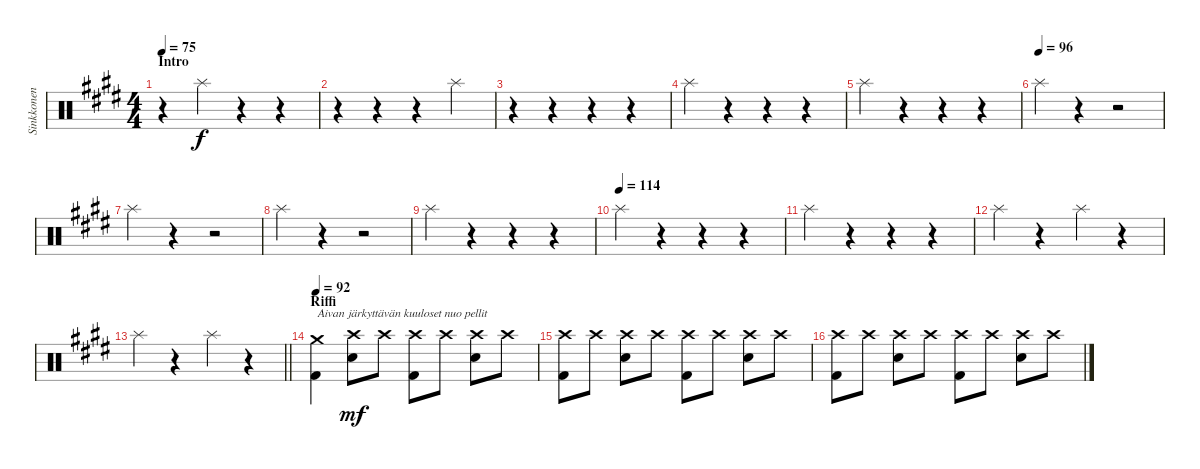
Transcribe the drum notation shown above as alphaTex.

\track ("Sinkkonen" "Sinkkonen") {instrument percussion}
\staff {score}
\articulation defaults
\ts (4 4)
\section ("" "Intro")
\tempo 75
\tempo 87
\tempo 75
\clef neutral
\ks c#minor
r.4{dy f} "Splash (hit)".4 r.4 r.4 |
r.4 r.4 r.4 "Splash (hit)".4 |
r.4 r.4 r.4 r.4 |
"Splash (hit)".4 r.4 r.4 r.4 |
"Splash (hit)".4 r.4 r.4 r.4 |
\tempo (96)
"Splash (hit)".4 r.4 r.2 |
"Splash (hit)".4 r.4 r.2 |
"Splash (hit)".4 r.4 r.2 |
"Splash (hit)".4 r.4 r.4 r.4 |
\tempo (114)
"Splash (hit)".4 r.4 r.4 r.4 |
"Splash (hit)".4 r.4 r.4 r.4 |
"Splash (hit)".4 r.4 "Splash (hit)".4 r.4 |
\barLineRight lightlight "Splash (hit)".4
r.4 "Splash (hit)".4 r.4 |
\section ("" "Riffi")
\tempo 92
("Kick (hit) 2" "Crash medium (hit)").4{txt "Aivan järkyttävän kuuloset nuo pellit"} ("Crash high (hit)" "Snare (hit) 2").8{dy mf} "Crash high (hit)".8 ("Kick (hit) 2" "Crash high (hit)").8 "Crash high (hit)".8 ("Crash high (hit)" "Snare (hit) 2").8 "Crash high (hit)".8 |
("Kick (hit) 2" "Crash high (hit)").8 "Crash high (hit)".8 ("Crash high (hit)" "Snare (hit) 2").8 "Crash high (hit)".8 ("Kick (hit) 2" "Crash high (hit)").8 "Crash high (hit)".8 ("Crash high (hit)" "Snare (hit) 2").8 "Crash high (hit)".8 |
("Kick (hit) 2" "Crash high (hit)").8 "Crash high (hit)".8 ("Crash high (hit)" "Snare (hit) 2").8 "Crash high (hit)".8 ("Kick (hit) 2" "Crash high (hit)").8 "Crash high (hit)".8 ("Crash high (hit)" "Snare (hit) 2").8 "Crash high (hit)".8
